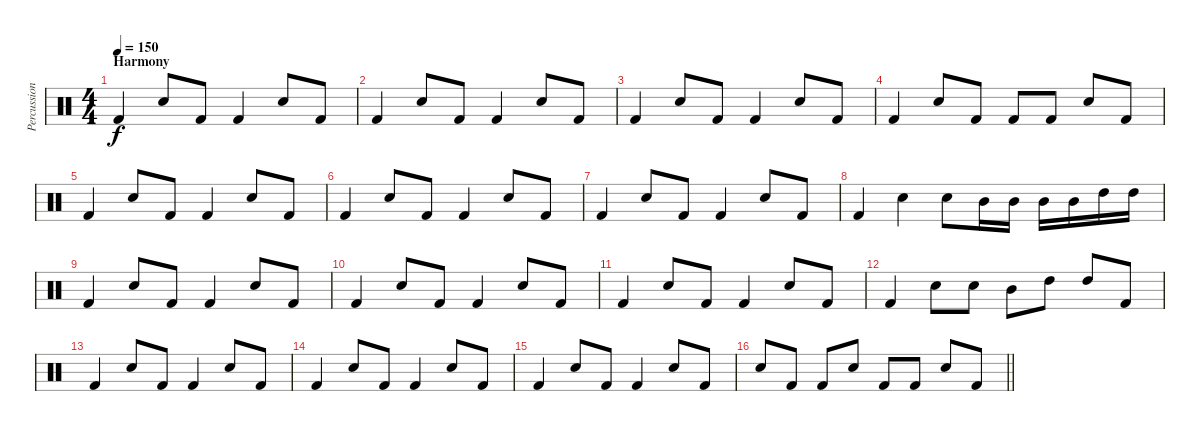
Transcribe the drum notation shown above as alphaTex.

\track ("Percussion" "Percussion") {instrument percussion}
\staff {score}
\articulation defaults
\ts (4 4)
\section ("" "Harmony")
\tempo 150
\clef neutral
\ks c "Kick (hit) 2".4{dy f} "Snare (hit) 2".8 "Kick (hit) 2".8 "Kick (hit) 2".4 "Snare (hit) 2".8 "Kick (hit) 2".8
|
"Kick (hit) 2".4 "Snare (hit) 2".8 "Kick (hit) 2".8 "Kick (hit) 2".4 "Snare (hit) 2".8 "Kick (hit) 2".8 |
"Kick (hit) 2".4 "Snare (hit) 2".8 "Kick (hit) 2".8 "Kick (hit) 2".4 "Snare (hit) 2".8 "Kick (hit) 2".8 |
"Kick (hit) 2".4 "Snare (hit) 2".8 "Kick (hit) 2".8 "Kick (hit) 2".8 "Kick (hit) 2".8 "Snare (hit) 2".8 "Kick (hit) 2".8 |
"Kick (hit) 2".4 "Snare (hit) 2".8 "Kick (hit) 2".8 "Kick (hit) 2".4 "Snare (hit) 2".8 "Kick (hit) 2".8 |
"Kick (hit) 2".4 "Snare (hit) 2".8 "Kick (hit) 2".8 "Kick (hit) 2".4 "Snare (hit) 2".8 "Kick (hit) 2".8 |
"Kick (hit) 2".4 "Snare (hit) 2".8 "Kick (hit) 2".8 "Kick (hit) 2".4 "Snare (hit) 2".8 "Kick (hit) 2".8 |
"Kick (hit) 2".4 "Snare (hit) 2".4 "Snare (hit) 2".8 "Mid Tom (hit)".16 "Mid Tom (hit)".16 "Mid Tom (hit)".16 "Mid Tom (hit)".16 "High Tom (hit)".16 "High Tom (hit)".16 |
"Kick (hit) 2".4 "Snare (hit) 2".8 "Kick (hit) 2".8 "Kick (hit) 2".4 "Snare (hit) 2".8 "Kick (hit) 2".8 |
"Kick (hit) 2".4 "Snare (hit) 2".8 "Kick (hit) 2".8 "Kick (hit) 2".4 "Snare (hit) 2".8 "Kick (hit) 2".8 |
"Kick (hit) 2".4 "Snare (hit) 2".8 "Kick (hit) 2".8 "Kick (hit) 2".4 "Snare (hit) 2".8 "Kick (hit) 2".8 |
"Kick (hit) 2".4 "Snare (hit) 2".8 "Snare (hit) 2".8 "Mid Tom (hit)".8 "High Tom (hit)".8 "High Tom (hit)".8 "Kick (hit) 2".8 |
"Kick (hit) 2".4 "Snare (hit) 2".8 "Kick (hit) 2".8 "Kick (hit) 2".4 "Snare (hit) 2".8 "Kick (hit) 2".8 |
"Kick (hit) 2".4 "Snare (hit) 2".8 "Kick (hit) 2".8 "Kick (hit) 2".4 "Snare (hit) 2".8 "Kick (hit) 2".8 |
"Kick (hit) 2".4 "Snare (hit) 2".8 "Kick (hit) 2".8 "Kick (hit) 2".4 "Snare (hit) 2".8 "Kick (hit) 2".8 |
\barLineRight lightlight "Snare (hit) 2".8 "Kick (hit) 2".8 "Kick (hit) 2".8 "Snare (hit) 2".8 "Kick (hit) 2".8 "Kick (hit) 2".8 "Snare (hit) 2".8 "Kick (hit) 2".8
